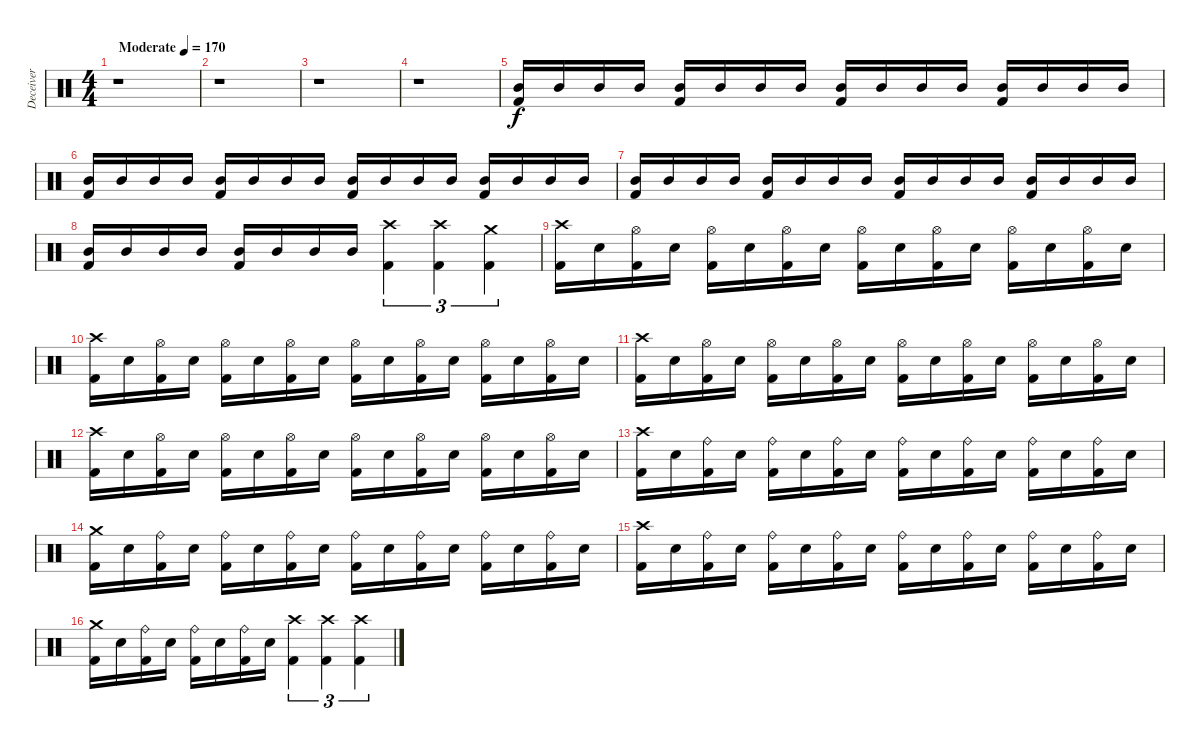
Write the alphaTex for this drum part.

\track ("Deceiver" "Deceiver") {instrument percussion}
\staff {score}
\articulation defaults
\ts (4 4)
\tempo (170 "Moderate")
\clef neutral
\ks c
r.1{dy f} |
r.1 |
r.1 |
r.1 |
("Mid Tom (hit)" "Kick (hit) 2").16 "Mid Tom (hit)".16 "Mid Tom (hit)".16 "Mid Tom (hit)".16 ("Mid Tom (hit)" "Kick (hit) 2").16 "Mid Tom (hit)".16 "Mid Tom (hit)".16 "Mid Tom (hit)".16 ("Mid Tom (hit)" "Kick (hit) 2").16 "Mid Tom (hit)".16 "Mid Tom (hit)".16 "Mid Tom (hit)".16 ("Mid Tom (hit)" "Kick (hit) 2").16 "Mid Tom (hit)".16 "Mid Tom (hit)".16 "Mid Tom (hit)".16 |
("Mid Tom (hit)" "Kick (hit) 2").16 "Mid Tom (hit)".16 "Mid Tom (hit)".16 "Mid Tom (hit)".16 ("Mid Tom (hit)" "Kick (hit) 2").16 "Mid Tom (hit)".16 "Mid Tom (hit)".16 "Mid Tom (hit)".16 ("Mid Tom (hit)" "Kick (hit) 2").16 "Mid Tom (hit)".16 "Mid Tom (hit)".16 "Mid Tom (hit)".16 ("Mid Tom (hit)" "Kick (hit) 2").16 "Mid Tom (hit)".16 "Mid Tom (hit)".16 "Mid Tom (hit)".16 |
("Mid Tom (hit)" "Kick (hit) 2").16 "Mid Tom (hit)".16 "Mid Tom (hit)".16 "Mid Tom (hit)".16 ("Mid Tom (hit)" "Kick (hit) 2").16 "Mid Tom (hit)".16 "Mid Tom (hit)".16 "Mid Tom (hit)".16 ("Mid Tom (hit)" "Kick (hit) 2").16 "Mid Tom (hit)".16 "Mid Tom (hit)".16 "Mid Tom (hit)".16 ("Mid Tom (hit)" "Kick (hit) 2").16 "Mid Tom (hit)".16 "Mid Tom (hit)".16 "Mid Tom (hit)".16 |
("Mid Tom (hit)" "Kick (hit) 2").16 "Mid Tom (hit)".16 "Mid Tom (hit)".16 "Mid Tom (hit)".16 ("Mid Tom (hit)" "Kick (hit) 2").16 "Mid Tom (hit)".16 "Mid Tom (hit)".16 "Mid Tom (hit)".16 ("Crash high (hit)" "Kick (hit) 2").4{tu (3 2)} ("Crash high (hit)" "Kick (hit) 2").4{tu (3 2)} ("Crash medium (hit)" "Kick (hit) 2").4{tu (3 2)} |
("Crash high (hit)" "Kick (hit) 2").16 "Electric Snare (hit)".16 ("Hi-Hat (open)" "Kick (hit) 2").16 "Electric Snare (hit)".16 ("Hi-Hat (open)" "Kick (hit) 2").16 "Electric Snare (hit)".16 ("Hi-Hat (open)" "Kick (hit) 2").16 "Electric Snare (hit)".16 ("Hi-Hat (open)" "Kick (hit) 2").16 "Electric Snare (hit)".16 ("Hi-Hat (open)" "Kick (hit) 2").16 "Electric Snare (hit)".16 ("Hi-Hat (open)" "Kick (hit) 2").16 "Electric Snare (hit)".16 ("Hi-Hat (open)" "Kick (hit) 2").16 "Electric Snare (hit)".16 |
("Crash high (hit)" "Kick (hit) 2").16 "Electric Snare (hit)".16 ("Hi-Hat (open)" "Kick (hit) 2").16 "Electric Snare (hit)".16 ("Hi-Hat (open)" "Kick (hit) 2").16 "Electric Snare (hit)".16 ("Hi-Hat (open)" "Kick (hit) 2").16 "Electric Snare (hit)".16 ("Hi-Hat (open)" "Kick (hit) 2").16 "Electric Snare (hit)".16 ("Hi-Hat (open)" "Kick (hit) 2").16 "Electric Snare (hit)".16 ("Hi-Hat (open)" "Kick (hit) 2").16 "Electric Snare (hit)".16 ("Hi-Hat (open)" "Kick (hit) 2").16 "Electric Snare (hit)".16 |
("Crash high (hit)" "Kick (hit) 2").16 "Electric Snare (hit)".16 ("Hi-Hat (open)" "Kick (hit) 2").16 "Electric Snare (hit)".16 ("Hi-Hat (open)" "Kick (hit) 2").16 "Electric Snare (hit)".16 ("Hi-Hat (open)" "Kick (hit) 2").16 "Electric Snare (hit)".16 ("Hi-Hat (open)" "Kick (hit) 2").16 "Electric Snare (hit)".16 ("Hi-Hat (open)" "Kick (hit) 2").16 "Electric Snare (hit)".16 ("Hi-Hat (open)" "Kick (hit) 2").16 "Electric Snare (hit)".16 ("Hi-Hat (open)" "Kick (hit) 2").16 "Electric Snare (hit)".16 |
("Crash high (hit)" "Kick (hit) 2").16 "Electric Snare (hit)".16 ("Hi-Hat (open)" "Kick (hit) 2").16 "Electric Snare (hit)".16 ("Hi-Hat (open)" "Kick (hit) 2").16 "Electric Snare (hit)".16 ("Hi-Hat (open)" "Kick (hit) 2").16 "Electric Snare (hit)".16 ("Hi-Hat (open)" "Kick (hit) 2").16 "Electric Snare (hit)".16 ("Hi-Hat (open)" "Kick (hit) 2").16 "Electric Snare (hit)".16 ("Hi-Hat (open)" "Kick (hit) 2").16 "Electric Snare (hit)".16 ("Hi-Hat (open)" "Kick (hit) 2").16 "Electric Snare (hit)".16 |
("Crash high (hit)" "Kick (hit) 2").16 "Electric Snare (hit)".16 ("Ride (bell)" "Kick (hit) 2").16 "Electric Snare (hit)".16 ("Ride (bell)" "Kick (hit) 2").16 "Electric Snare (hit)".16 ("Ride (bell)" "Kick (hit) 2").16 "Electric Snare (hit)".16 ("Ride (bell)" "Kick (hit) 2").16 "Electric Snare (hit)".16 ("Ride (bell)" "Kick (hit) 2").16 "Electric Snare (hit)".16 ("Ride (bell)" "Kick (hit) 2").16 "Electric Snare (hit)".16 ("Ride (bell)" "Kick (hit) 2").16 "Electric Snare (hit)".16 |
("Crash medium (hit)" "Kick (hit) 2").16 "Electric Snare (hit)".16 ("Ride (bell)" "Kick (hit) 2").16 "Electric Snare (hit)".16 ("Ride (bell)" "Kick (hit) 2").16 "Electric Snare (hit)".16 ("Ride (bell)" "Kick (hit) 2").16 "Electric Snare (hit)".16 ("Ride (bell)" "Kick (hit) 2").16 "Electric Snare (hit)".16 ("Ride (bell)" "Kick (hit) 2").16 "Electric Snare (hit)".16 ("Ride (bell)" "Kick (hit) 2").16 "Electric Snare (hit)".16 ("Ride (bell)" "Kick (hit) 2").16 "Electric Snare (hit)".16 |
("Crash high (hit)" "Kick (hit) 2").16 "Electric Snare (hit)".16 ("Ride (bell)" "Kick (hit) 2").16 "Electric Snare (hit)".16 ("Ride (bell)" "Kick (hit) 2").16 "Electric Snare (hit)".16 ("Ride (bell)" "Kick (hit) 2").16 "Electric Snare (hit)".16 ("Ride (bell)" "Kick (hit) 2").16 "Electric Snare (hit)".16 ("Ride (bell)" "Kick (hit) 2").16 "Electric Snare (hit)".16 ("Ride (bell)" "Kick (hit) 2").16 "Electric Snare (hit)".16 ("Ride (bell)" "Kick (hit) 2").16 "Electric Snare (hit)".16 |
("Crash medium (hit)" "Kick (hit) 2").16 "Electric Snare (hit)".16 ("Ride (bell)" "Kick (hit) 2").16 "Electric Snare (hit)".16 ("Ride (bell)" "Kick (hit) 2").16 "Electric Snare (hit)".16 ("Ride (bell)" "Kick (hit) 2").16 "Electric Snare (hit)".16 ("Crash high (hit)" "Kick (hit) 2").4{tu (3 2)} ("Crash high (hit)" "Kick (hit) 2").4{tu (3 2)} ("Crash high (hit)" "Kick (hit) 2").4{tu (3 2)}
